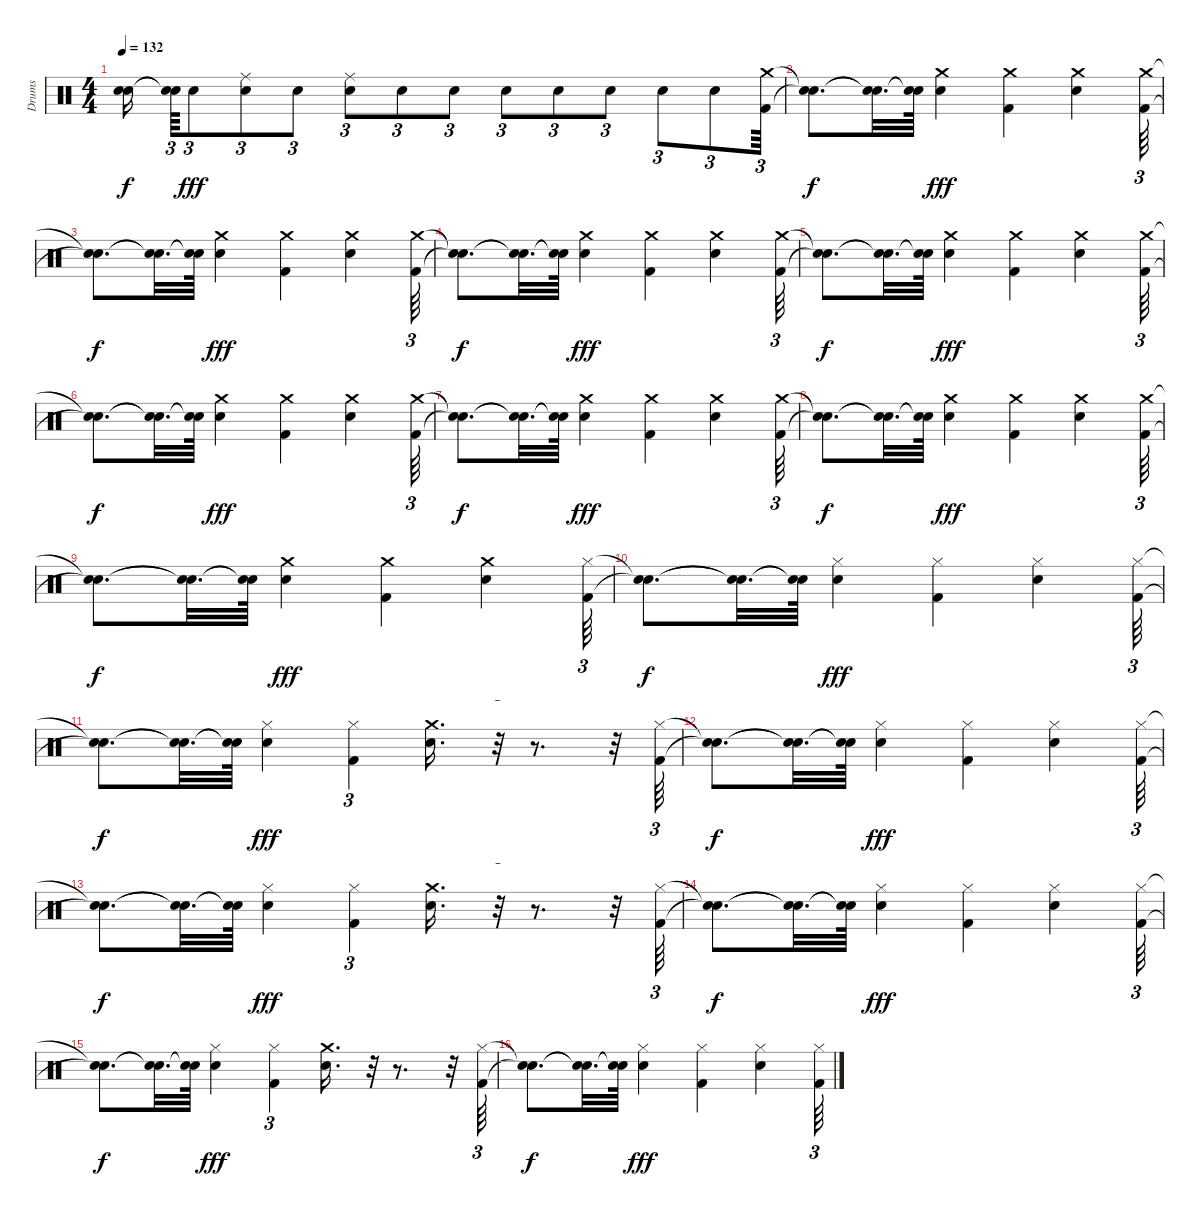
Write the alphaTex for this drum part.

\track ("Drums" "Drums") {instrument percussion}
\staff {score}
\articulation defaults
\ts (4 4)
\tempo 132
\clef neutral
\ks c
("Snare (hit)"{t} "Snare (hit)"{t}).16{dy f} ("Snare (hit)"{t} "Snare (hit)"{t}).64{tu (3 2)} "Electric Snare (hit)".8{tu (3 2) dy fff} ("Electric Snare (hit)" "Ride (middle)").8{tu (3 2)} "Electric Snare (hit)".8{tu (3 2)} ("Ride (middle)" "Electric Snare (hit)").8{tu (3 2)} "Electric Snare (hit)".8{tu (3 2)} "Electric Snare (hit)".8{tu (3 2)} "Electric Snare (hit)".8{tu (3 2)} "Electric Snare (hit)".8{tu (3 2)} "Electric Snare (hit)".8{tu (3 2)} "Electric Snare (hit)".8{tu (3 2)} "Electric Snare (hit)".8{tu (3 2)} ("Kick (hit) 2" "Crash medium (hit)").64{tu (3 2)} |
("Snare (hit)"{t} "Snare (hit)"{t}).8{d dy f} ("Snare (hit)"{t} "Snare (hit)"{t}).32{d} ("Snare (hit)"{t} "Snare (hit)"{t}).64 ("Crash medium (hit)" "Electric Snare (hit)").4{dy fff} ("Crash medium (hit)" "Kick (hit) 2").4 ("Crash medium (hit)" "Electric Snare (hit)").4 ("Crash medium (hit)" "Kick (hit) 2").64{tu (3 2)} |
("Snare (hit)"{t} "Snare (hit)"{t}).8{d dy f} ("Snare (hit)"{t} "Snare (hit)"{t}).32{d} ("Snare (hit)"{t} "Snare (hit)"{t}).64 ("Crash medium (hit)" "Electric Snare (hit)").4{dy fff} ("Crash medium (hit)" "Kick (hit) 2").4 ("Crash medium (hit)" "Electric Snare (hit)").4 ("Kick (hit) 2" "Crash medium (hit)").64{tu (3 2)} |
("Snare (hit)"{t} "Snare (hit)"{t}).8{d dy f} ("Snare (hit)"{t} "Snare (hit)"{t}).32{d} ("Snare (hit)"{t} "Snare (hit)"{t}).64 ("Crash medium (hit)" "Electric Snare (hit)").4{dy fff} ("Crash medium (hit)" "Kick (hit) 2").4 ("Crash medium (hit)" "Electric Snare (hit)").4 ("Crash medium (hit)" "Kick (hit) 2").64{tu (3 2)} |
("Snare (hit)"{t} "Snare (hit)"{t}).8{d dy f} ("Snare (hit)"{t} "Snare (hit)"{t}).32{d} ("Snare (hit)"{t} "Snare (hit)"{t}).64 ("Crash medium (hit)" "Electric Snare (hit)").4{dy fff} ("Crash medium (hit)" "Kick (hit) 2").4 ("Crash medium (hit)" "Electric Snare (hit)").4 ("Crash medium (hit)" "Kick (hit) 2").64{tu (3 2)} |
("Snare (hit)"{t} "Snare (hit)"{t}).8{d dy f} ("Snare (hit)"{t} "Snare (hit)"{t}).32{d} ("Snare (hit)"{t} "Snare (hit)"{t}).64 ("Electric Snare (hit)" "Crash medium (hit)").4{dy fff} ("Kick (hit) 2" "Crash medium (hit)").4 ("Crash medium (hit)" "Electric Snare (hit)").4 ("Crash medium (hit)" "Kick (hit) 2").64{tu (3 2)} |
("Snare (hit)"{t} "Snare (hit)"{t}).8{d dy f} ("Snare (hit)"{t} "Snare (hit)"{t}).32{d} ("Snare (hit)"{t} "Snare (hit)"{t}).64 ("Crash medium (hit)" "Electric Snare (hit)").4{dy fff} ("Crash medium (hit)" "Kick (hit) 2").4 ("Crash medium (hit)" "Electric Snare (hit)").4 ("Crash medium (hit)" "Kick (hit) 2").64{tu (3 2)} |
("Snare (hit)"{t} "Snare (hit)"{t}).8{d dy f} ("Snare (hit)"{t} "Snare (hit)"{t}).32{d} ("Snare (hit)"{t} "Snare (hit)"{t}).64 ("Electric Snare (hit)" "Crash medium (hit)").4{dy fff} ("Crash medium (hit)" "Kick (hit) 2").4 ("Crash medium (hit)" "Electric Snare (hit)").4 ("Crash medium (hit)" "Kick (hit) 2").64{tu (3 2)} |
("Snare (hit)"{t} "Snare (hit)"{t}).8{d dy f} ("Snare (hit)"{t} "Snare (hit)"{t}).32{d} ("Snare (hit)"{t} "Snare (hit)"{t}).64 ("Crash medium (hit)" "Electric Snare (hit)").4{dy fff} ("Kick (hit) 2" "Crash medium (hit)").4 ("Crash medium (hit)" "Electric Snare (hit)").4 ("Kick (hit) 2" "Hi-Hat (closed)").64{tu (3 2)} |
("Snare (hit)"{t} "Snare (hit)"{t}).8{d dy f} ("Snare (hit)"{t} "Snare (hit)"{t}).32{d} ("Snare (hit)"{t} "Snare (hit)"{t}).64 ("Hi-Hat (closed)" "Electric Snare (hit)").4{dy fff} ("Kick (hit) 2" "Hi-Hat (closed)").4 ("Hi-Hat (closed)" "Electric Snare (hit)").4 ("Hi-Hat (closed)" "Kick (hit) 2").64{tu (3 2)} |
("Snare (hit)"{t} "Snare (hit)"{t}).8{d dy f} ("Snare (hit)"{t} "Snare (hit)"{t}).32{d} ("Snare (hit)"{t} "Snare (hit)"{t}).64 ("Electric Snare (hit)" "Hi-Hat (closed)").4{dy fff} ("Hi-Hat (closed)" "Kick (hit) 2").4{tu (3 2)} ("Electric Snare (hit)" "Crash medium (hit)").16{d} r.32{tu (3 2)} r.8{d} r.32 ("Hi-Hat (closed)" "Kick (hit) 2").64{tu (3 2)} |
("Snare (hit)"{t} "Snare (hit)"{t}).8{d dy f} ("Snare (hit)"{t} "Snare (hit)"{t}).32{d} ("Snare (hit)"{t} "Snare (hit)"{t}).64 ("Hi-Hat (closed)" "Electric Snare (hit)").4{dy fff} ("Kick (hit) 2" "Hi-Hat (closed)").4 ("Hi-Hat (closed)" "Electric Snare (hit)").4 ("Hi-Hat (closed)" "Kick (hit) 2").64{tu (3 2)} |
("Snare (hit)"{t} "Snare (hit)"{t}).8{d dy f} ("Snare (hit)"{t} "Snare (hit)"{t}).32{d} ("Snare (hit)"{t} "Snare (hit)"{t}).64 ("Electric Snare (hit)" "Hi-Hat (closed)").4{dy fff} ("Hi-Hat (closed)" "Kick (hit) 2").4{tu (3 2)} ("Crash medium (hit)" "Electric Snare (hit)").16{d} r.32{tu (3 2)} r.8{d} r.32 ("Hi-Hat (closed)" "Kick (hit) 2").64{tu (3 2)} |
("Snare (hit)"{t} "Snare (hit)"{t}).8{d dy f} ("Snare (hit)"{t} "Snare (hit)"{t}).32{d} ("Snare (hit)"{t} "Snare (hit)"{t}).64 ("Hi-Hat (closed)" "Electric Snare (hit)").4{dy fff} ("Hi-Hat (closed)" "Kick (hit) 2").4 ("Hi-Hat (closed)" "Electric Snare (hit)").4 ("Hi-Hat (closed)" "Kick (hit) 2").64{tu (3 2)} |
("Snare (hit)"{t} "Snare (hit)"{t}).8{d dy f} ("Snare (hit)"{t} "Snare (hit)"{t}).32{d} ("Snare (hit)"{t} "Snare (hit)"{t}).64 ("Hi-Hat (closed)" "Electric Snare (hit)").4{dy fff} ("Kick (hit) 2" "Hi-Hat (closed)").4{tu (3 2)} ("Crash medium (hit)" "Electric Snare (hit)").16{d} r.32{tu (3 2)} r.8{d} r.32 ("Hi-Hat (closed)" "Kick (hit) 2").64{tu (3 2)} |
("Snare (hit)"{t} "Snare (hit)"{t}).8{d dy f} ("Snare (hit)"{t} "Snare (hit)"{t}).32{d} ("Snare (hit)"{t} "Snare (hit)"{t}).64 ("Electric Snare (hit)" "Hi-Hat (closed)").4{dy fff} ("Hi-Hat (closed)" "Kick (hit) 2").4 ("Electric Snare (hit)" "Hi-Hat (closed)").4 ("Hi-Hat (closed)" "Kick (hit) 2").64{tu (3 2)}
